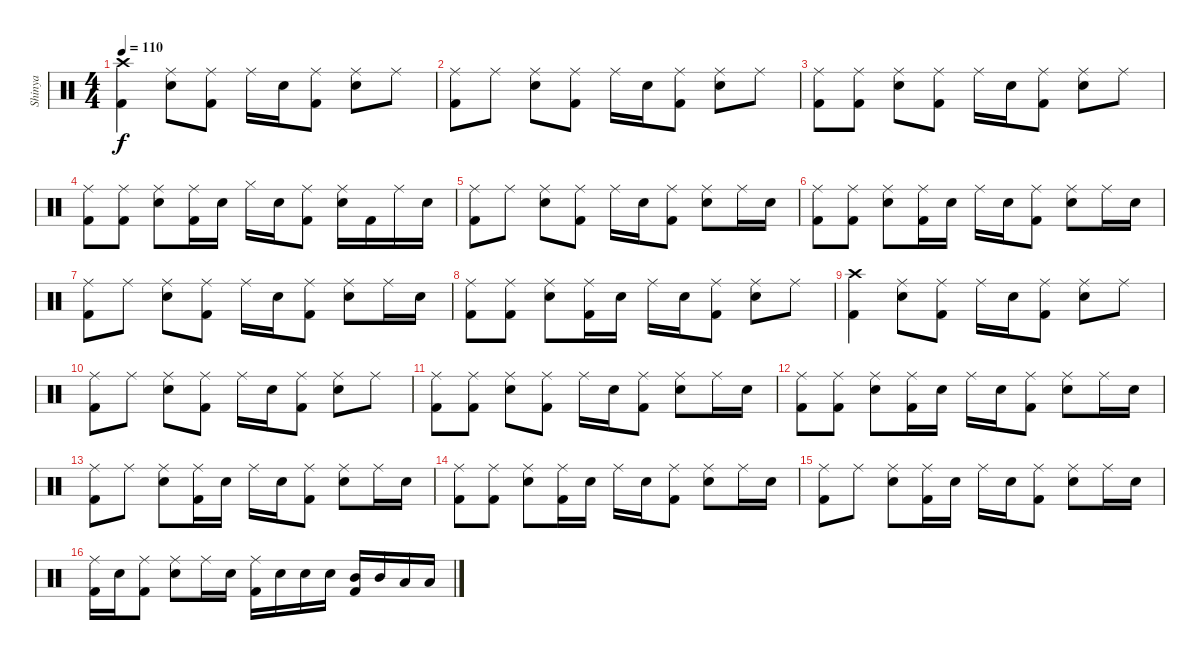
\track ("Shinya" "Shinya") {instrument percussion}
\staff {score}
\articulation defaults
\ts (4 4)
\tempo 110
\clef neutral
\ks c
("Crash high (hit)" "Kick (hit) 2").4{dy f} ("Ride (middle)" "Snare (hit) 2").8 ("Ride (middle)" "Kick (hit) 2").8 "Ride (middle)".16 "Snare (hit) 2".16 ("Ride (middle)" "Kick (hit) 2").8 ("Ride (middle)" "Snare (hit) 2").8 "Ride (middle)".8 |
("Ride (middle)" "Kick (hit) 2").8 "Ride (middle)".8 ("Ride (middle)" "Snare (hit) 2").8 ("Ride (middle)" "Kick (hit) 2").8 "Ride (middle)".16 "Snare (hit) 2".16 ("Ride (middle)" "Kick (hit) 2").8 ("Ride (middle)" "Snare (hit) 2").8 "Ride (middle)".8 |
("Ride (middle)" "Kick (hit) 2").8 ("Ride (middle)" "Kick (hit) 2").8 ("Ride (middle)" "Snare (hit) 2").8 ("Ride (middle)" "Kick (hit) 2").8 "Ride (middle)".16 "Snare (hit) 2".16 ("Ride (middle)" "Kick (hit) 2").8 ("Ride (middle)" "Snare (hit) 2").8 "Ride (middle)".8 |
("Ride (middle)" "Kick (hit) 2").8 ("Ride (middle)" "Kick (hit) 2").8 ("Ride (middle)" "Snare (hit) 2").8 ("Ride (middle)" "Kick (hit) 2").16 "Snare (hit) 2".16 "Hi-Hat (closed)".16 "Snare (hit) 2".16 ("Ride (middle)" "Kick (hit) 2").8 ("Ride (middle)" "Snare (hit) 2").16 "Kick (hit) 2".16 "Ride (middle)".16 "Snare (hit) 2".16 |
("Ride (middle)" "Kick (hit) 2").8 "Ride (middle)".8 ("Ride (middle)" "Snare (hit) 2").8 ("Ride (middle)" "Kick (hit) 2").8 "Ride (middle)".16 "Snare (hit) 2".16 ("Ride (middle)" "Kick (hit) 2").8 ("Ride (middle)" "Snare (hit) 2").8 "Ride (middle)".16 "Snare (hit) 2".16 |
("Ride (middle)" "Kick (hit) 2").8 ("Ride (middle)" "Kick (hit) 2").8 ("Ride (middle)" "Snare (hit) 2").8 ("Ride (middle)" "Kick (hit) 2").16 "Snare (hit) 2".16 "Ride (middle)".16 "Snare (hit) 2".16 ("Ride (middle)" "Kick (hit) 2").8 ("Ride (middle)" "Snare (hit) 2").8 "Ride (middle)".16 "Snare (hit) 2".16 |
("Ride (middle)" "Kick (hit) 2").8 "Ride (middle)".8 ("Ride (middle)" "Snare (hit) 2").8 ("Ride (middle)" "Kick (hit) 2").8 "Ride (middle)".16 "Snare (hit) 2".16 ("Ride (middle)" "Kick (hit) 2").8 ("Ride (middle)" "Snare (hit) 2").8 "Ride (middle)".16 "Snare (hit) 2".16 |
("Ride (middle)" "Kick (hit) 2").8 ("Ride (middle)" "Kick (hit) 2").8 ("Ride (middle)" "Snare (hit) 2").8 ("Ride (middle)" "Kick (hit) 2").16 "Snare (hit) 2".16 "Ride (middle)".16 "Snare (hit) 2".16 ("Ride (middle)" "Kick (hit) 2").8 ("Ride (middle)" "Snare (hit) 2").8 "Ride (middle)".8 |
("Crash high (hit)" "Kick (hit) 2").4 ("Ride (middle)" "Snare (hit) 2").8 ("Ride (middle)" "Kick (hit) 2").8 "Ride (middle)".16 "Snare (hit) 2".16 ("Ride (middle)" "Kick (hit) 2").8 ("Ride (middle)" "Snare (hit) 2").8 "Ride (middle)".8 |
("Ride (middle)" "Kick (hit) 2").8 "Ride (middle)".8 ("Ride (middle)" "Snare (hit) 2").8 ("Ride (middle)" "Kick (hit) 2").8 "Ride (middle)".16 "Snare (hit) 2".16 ("Ride (middle)" "Kick (hit) 2").8 ("Ride (middle)" "Snare (hit) 2").8 "Ride (middle)".8 |
("Ride (middle)" "Kick (hit) 2").8 ("Ride (middle)" "Kick (hit) 2").8 ("Ride (middle)" "Snare (hit) 2").8 ("Ride (middle)" "Kick (hit) 2").8 "Ride (middle)".16 "Snare (hit) 2".16 ("Ride (middle)" "Kick (hit) 2").8 ("Ride (middle)" "Snare (hit) 2").8 "Ride (middle)".16 "Snare (hit) 2".16 |
("Ride (middle)" "Kick (hit) 2").8 ("Ride (middle)" "Kick (hit) 2").8 ("Ride (middle)" "Snare (hit) 2").8 ("Ride (middle)" "Kick (hit) 2").16 "Snare (hit) 2".16 "Ride (middle)".16 "Snare (hit) 2".16 ("Ride (middle)" "Kick (hit) 2").8 ("Ride (middle)" "Snare (hit) 2").8 "Ride (middle)".16 "Snare (hit) 2".16 |
("Ride (middle)" "Kick (hit) 2").8 "Ride (middle)".8 ("Ride (middle)" "Snare (hit) 2").8 ("Ride (middle)" "Kick (hit) 2").16 "Snare (hit) 2".16 "Ride (middle)".16 "Snare (hit) 2".16 ("Ride (middle)" "Kick (hit) 2").8 ("Ride (middle)" "Snare (hit) 2").8 "Ride (middle)".16 "Snare (hit) 2".16 |
("Ride (middle)" "Kick (hit) 2").8 ("Ride (middle)" "Kick (hit) 2").8 ("Ride (middle)" "Snare (hit) 2").8 ("Ride (middle)" "Kick (hit) 2").16 "Snare (hit) 2".16 "Ride (middle)".16 "Snare (hit) 2".16 ("Ride (middle)" "Kick (hit) 2").8 ("Ride (middle)" "Snare (hit) 2").8 "Ride (middle)".16 "Snare (hit) 2".16 |
("Ride (middle)" "Kick (hit) 2").8 "Ride (middle)".8 ("Ride (middle)" "Snare (hit) 2").8 ("Ride (middle)" "Kick (hit) 2").16 "Snare (hit) 2".16 "Ride (middle)".16 "Snare (hit) 2".16 ("Ride (middle)" "Kick (hit) 2").8 ("Ride (middle)" "Snare (hit) 2").8 "Ride (middle)".16 "Snare (hit) 2".16 |
("Ride (middle)" "Kick (hit) 2").16 "Snare (hit) 2".16 ("Ride (middle)" "Kick (hit) 2").8 ("Ride (middle)" "Snare (hit) 2").8 "Ride (middle)".16 "Snare (hit) 2".16 ("Ride (middle)" "Kick (hit) 2").16 "Snare (hit) 2".16 "Snare (hit) 2".16 "Snare (hit) 2".16 ("Mid Tom (hit)" "Kick (hit) 2").16 "Mid Tom (hit)".16 "Low Tom (hit)".16 "Low Tom (hit)".16
